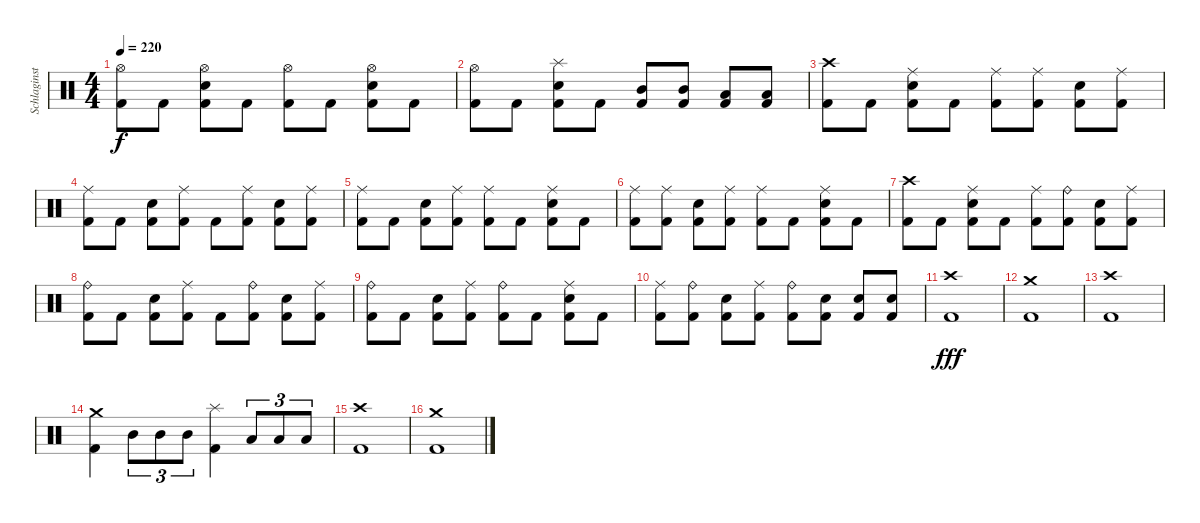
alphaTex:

\track ("Schlaginstrumente - Auswahl" "Schlaginst") {instrument percussion}
\staff {score}
\articulation defaults
\ts (4 4)
\tempo 220
\clef neutral
\ks c
("Hi-Hat (open)" "Kick (hit) 2").8{dy f} "Kick (hit) 2".8 ("Hi-Hat (open)" "Snare (hit) 2" "Kick (hit) 2").8 "Kick (hit) 2".8 ("Hi-Hat (open)" "Kick (hit) 2").8 "Kick (hit) 2".8 ("Hi-Hat (open)" "Snare (hit) 2" "Kick (hit) 2").8 "Kick (hit) 2".8 |
("Hi-Hat (open)" "Kick (hit) 2").8 "Kick (hit) 2".8 ("Splash (hit)" "Snare (hit) 2" "Kick (hit) 2").8 "Kick (hit) 2".8 ("Mid Tom (hit)" "Kick (hit) 2").8 ("Mid Tom (hit)" "Kick (hit) 2").8 ("Low Tom (hit)" "Kick (hit) 2").8 ("Low Tom (hit)" "Kick (hit) 2").8 |
("Crash high (hit)" "Kick (hit) 2").8 "Kick (hit) 2".8 ("Ride (middle)" "Snare (hit) 2" "Kick (hit) 2").8 "Kick (hit) 2".8 ("Ride (middle)" "Kick (hit) 2").8 ("Ride (middle)" "Kick (hit) 2").8 ("Snare (hit) 2" "Kick (hit) 2").8 ("Ride (middle)" "Kick (hit) 2").8 |
("Ride (middle)" "Kick (hit) 2").8 "Kick (hit) 2".8 ("Snare (hit) 2" "Kick (hit) 2").8 ("Ride (middle)" "Kick (hit) 2").8 "Kick (hit) 2".8 ("Ride (middle)" "Kick (hit) 2").8 ("Snare (hit) 2" "Kick (hit) 2").8 ("Ride (middle)" "Kick (hit) 2").8 |
("Ride (middle)" "Kick (hit) 2").8 "Kick (hit) 2".8 ("Snare (hit) 2" "Kick (hit) 2").8 ("Ride (middle)" "Kick (hit) 2").8 ("Ride (middle)" "Kick (hit) 2").8 "Kick (hit) 2".8 ("Ride (middle)" "Snare (hit) 2" "Kick (hit) 2").8 "Kick (hit) 2".8 |
("Ride (middle)" "Kick (hit) 2").8 ("Ride (middle)" "Kick (hit) 2").8 ("Snare (hit) 2" "Kick (hit) 2").8 ("Ride (middle)" "Kick (hit) 2").8 ("Ride (middle)" "Kick (hit) 2").8 "Kick (hit) 2".8 ("Ride (middle)" "Snare (hit) 2" "Kick (hit) 2").8 "Kick (hit) 2".8 |
("Crash high (hit)" "Kick (hit) 2").8 "Kick (hit) 2".8 ("Ride (middle)" "Snare (hit) 2" "Kick (hit) 2").8 "Kick (hit) 2".8 ("Ride (middle)" "Kick (hit) 2").8 ("Ride (bell)" "Kick (hit) 2").8 ("Snare (hit) 2" "Kick (hit) 2").8 ("Ride (middle)" "Kick (hit) 2").8 |
("Ride (bell)" "Kick (hit) 2").8 "Kick (hit) 2".8 ("Snare (hit) 2" "Kick (hit) 2").8 ("Ride (middle)" "Kick (hit) 2").8 "Kick (hit) 2".8 ("Ride (bell)" "Kick (hit) 2").8 ("Snare (hit) 2" "Kick (hit) 2").8 ("Ride (middle)" "Kick (hit) 2").8 |
("Ride (bell)" "Kick (hit) 2").8 "Kick (hit) 2".8 ("Snare (hit) 2" "Kick (hit) 2").8 ("Ride (middle)" "Kick (hit) 2").8 ("Ride (bell)" "Kick (hit) 2").8 "Kick (hit) 2".8 ("Ride (middle)" "Snare (hit) 2" "Kick (hit) 2").8 "Kick (hit) 2".8 |
("Ride (middle)" "Kick (hit) 2").8 ("Ride (bell)" "Kick (hit) 2").8 ("Snare (hit) 2" "Kick (hit) 2").8 ("Ride (middle)" "Kick (hit) 2").8 ("Ride (bell)" "Kick (hit) 2").8 ("Snare (hit) 2" "Kick (hit) 2").8 ("Snare (hit) 2" "Kick (hit) 2").8 ("Snare (hit) 2" "Kick (hit) 2").8 |
("Crash high (hit)" "Kick (hit) 2").1{dy fff} |
("Crash medium (hit)" "Kick (hit) 2").1 |
("Crash high (hit)" "Kick (hit) 2").1 |
("Crash medium (hit)" "Kick (hit) 2").4 "Mid Tom (hit)".8{tu (3 2)} "Mid Tom (hit)".8{tu (3 2)} "Mid Tom (hit)".8{tu (3 2)} ("Splash (hit)" "Kick (hit) 2").4 "Low Tom (hit)".8{tu (3 2)} "Low Tom (hit)".8{tu (3 2)} "Low Tom (hit)".8{tu (3 2)} |
("Crash high (hit)" "Kick (hit) 2").1 |
("Crash medium (hit)" "Kick (hit) 2").1
